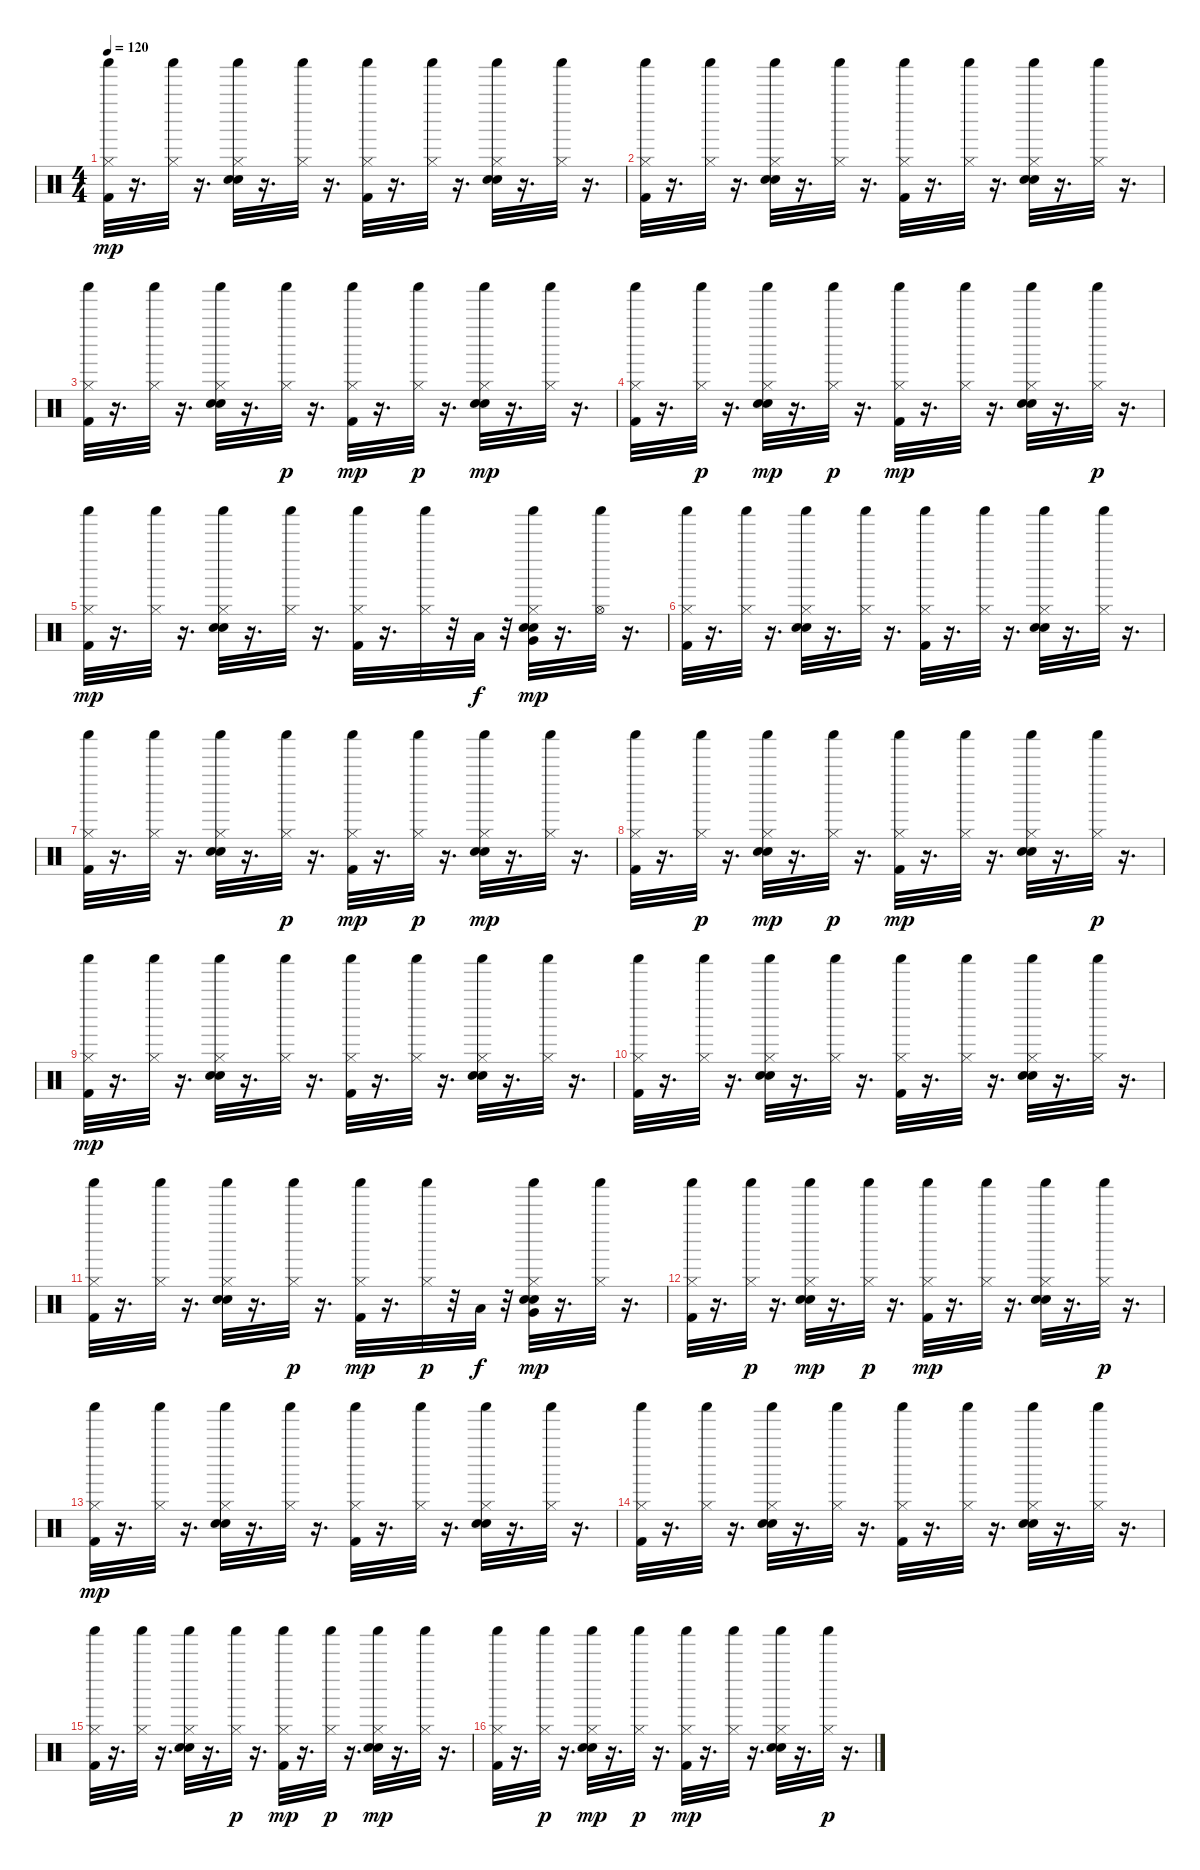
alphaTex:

\track "" {instrument percussion}
\staff {score}
\articulation defaults
\ts (4 4)
\tempo 120
\clef neutral
\ks c
("Kick (hit) 2" "Hi-Hat (closed)" "Shaker (hit)").32{dy mp} r.16{d} ("Hi-Hat (closed)" "Shaker (hit)").32 r.16{d} ("Hand Clap (hit)" "Electric Snare (hit)" "Hi-Hat (closed)" "Shaker (hit)").32 r.16{d} ("Hi-Hat (closed)" "Shaker (hit)").32 r.16{d} ("Kick (hit) 2" "Hi-Hat (closed)" "Shaker (hit)").32 r.16{d} ("Hi-Hat (closed)" "Shaker (hit)").32 r.16{d} ("Hand Clap (hit)" "Electric Snare (hit)" "Hi-Hat (closed)" "Shaker (hit)").32 r.16{d} ("Hi-Hat (closed)" "Shaker (hit)").32 r.16{d} |
("Kick (hit) 2" "Hi-Hat (closed)" "Shaker (hit)").32 r.16{d} ("Hi-Hat (closed)" "Shaker (hit)").32 r.16{d} ("Hand Clap (hit)" "Electric Snare (hit)" "Hi-Hat (closed)" "Shaker (hit)").32 r.16{d} ("Hi-Hat (closed)" "Shaker (hit)").32 r.16{d} ("Kick (hit) 2" "Hi-Hat (closed)" "Shaker (hit)").32 r.16{d} ("Hi-Hat (closed)" "Shaker (hit)").32 r.16{d} ("Hand Clap (hit)" "Electric Snare (hit)" "Hi-Hat (closed)" "Shaker (hit)").32 r.16{d} ("Hi-Hat (closed)" "Shaker (hit)").32 r.16{d} |
("Kick (hit) 2" "Hi-Hat (closed)" "Shaker (hit)").32 r.16{d} ("Hi-Hat (closed)" "Shaker (hit)").32 r.16{d} ("Hand Clap (hit)" "Electric Snare (hit)" "Hi-Hat (closed)" "Shaker (hit)").32 r.16{d} ("Hi-Hat (closed)" "Shaker (hit)").32{dy p} r.16{d} ("Kick (hit) 2" "Hi-Hat (closed)" "Shaker (hit)").32{dy mp} r.16{d} ("Hi-Hat (closed)" "Shaker (hit)").32{dy p} r.16{d} ("Hand Clap (hit)" "Electric Snare (hit)" "Hi-Hat (closed)" "Shaker (hit)").32{dy mp} r.16{d} ("Hi-Hat (closed)" "Shaker (hit)").32 r.16{d} |
("Kick (hit) 2" "Hi-Hat (closed)" "Shaker (hit)").32 r.16{d} ("Hi-Hat (closed)" "Shaker (hit)").32{dy p} r.16{d} ("Hand Clap (hit)" "Electric Snare (hit)" "Hi-Hat (closed)" "Shaker (hit)").32{dy mp} r.16{d} ("Hi-Hat (closed)" "Shaker (hit)").32{dy p} r.16{d} ("Kick (hit) 2" "Hi-Hat (closed)" "Shaker (hit)").32{dy mp} r.16{d} ("Hi-Hat (closed)" "Shaker (hit)").32 r.16{d} ("Hand Clap (hit)" "Electric Snare (hit)" "Hi-Hat (closed)" "Shaker (hit)").32 r.16{d} ("Hi-Hat (closed)" "Shaker (hit)").32{dy p} r.16{d} |
("Kick (hit) 2" "Hi-Hat (closed)" "Shaker (hit)").32{dy mp} r.16{d} ("Hi-Hat (closed)" "Shaker (hit)").32 r.16{d} ("Hand Clap (hit)" "Electric Snare (hit)" "Hi-Hat (closed)" "Shaker (hit)").32 r.16{d} ("Hi-Hat (closed)" "Shaker (hit)").32 r.16{d} ("Kick (hit) 2" "Hi-Hat (closed)" "Shaker (hit)").32 r.16{d} ("Hi-Hat (closed)" "Shaker (hit)").32 r.32 "Low Tom (hit)".32{dy f} r.32 ("Hand Clap (hit)" "Electric Snare (hit)" "Hi-Hat (closed)" "Very Low Tom (hit)" "Shaker (hit)").32{dy mp} r.16{d} ("Hi-Hat (open)" "Shaker (hit)").32 r.16{d} |
("Kick (hit) 2" "Hi-Hat (closed)" "Shaker (hit)").32 r.16{d} ("Hi-Hat (closed)" "Shaker (hit)").32 r.16{d} ("Hand Clap (hit)" "Electric Snare (hit)" "Hi-Hat (closed)" "Shaker (hit)").32 r.16{d} ("Hi-Hat (closed)" "Shaker (hit)").32 r.16{d} ("Kick (hit) 2" "Hi-Hat (closed)" "Shaker (hit)").32 r.16{d} ("Hi-Hat (closed)" "Shaker (hit)").32 r.16{d} ("Hand Clap (hit)" "Electric Snare (hit)" "Hi-Hat (closed)" "Shaker (hit)").32 r.16{d} ("Hi-Hat (closed)" "Shaker (hit)").32 r.16{d} |
("Kick (hit) 2" "Hi-Hat (closed)" "Shaker (hit)").32 r.16{d} ("Hi-Hat (closed)" "Shaker (hit)").32 r.16{d} ("Hand Clap (hit)" "Electric Snare (hit)" "Hi-Hat (closed)" "Shaker (hit)").32 r.16{d} ("Hi-Hat (closed)" "Shaker (hit)").32{dy p} r.16{d} ("Kick (hit) 2" "Hi-Hat (closed)" "Shaker (hit)").32{dy mp} r.16{d} ("Hi-Hat (closed)" "Shaker (hit)").32{dy p} r.16{d} ("Hand Clap (hit)" "Electric Snare (hit)" "Hi-Hat (closed)" "Shaker (hit)").32{dy mp} r.16{d} ("Hi-Hat (closed)" "Shaker (hit)").32 r.16{d} |
("Kick (hit) 2" "Hi-Hat (closed)" "Shaker (hit)").32 r.16{d} ("Hi-Hat (closed)" "Shaker (hit)").32{dy p} r.16{d} ("Hand Clap (hit)" "Electric Snare (hit)" "Hi-Hat (closed)" "Shaker (hit)").32{dy mp} r.16{d} ("Hi-Hat (closed)" "Shaker (hit)").32{dy p} r.16{d} ("Kick (hit) 2" "Hi-Hat (closed)" "Shaker (hit)").32{dy mp} r.16{d} ("Hi-Hat (closed)" "Shaker (hit)").32 r.16{d} ("Hand Clap (hit)" "Electric Snare (hit)" "Hi-Hat (closed)" "Shaker (hit)").32 r.16{d} ("Hi-Hat (closed)" "Shaker (hit)").32{dy p} r.16{d} |
("Kick (hit) 2" "Hi-Hat (closed)" "Shaker (hit)").32{dy mp} r.16{d} ("Hi-Hat (closed)" "Shaker (hit)").32 r.16{d} ("Hand Clap (hit)" "Electric Snare (hit)" "Hi-Hat (closed)" "Shaker (hit)").32 r.16{d} ("Hi-Hat (closed)" "Shaker (hit)").32 r.16{d} ("Kick (hit) 2" "Hi-Hat (closed)" "Shaker (hit)").32 r.16{d} ("Hi-Hat (closed)" "Shaker (hit)").32 r.16{d} ("Hand Clap (hit)" "Electric Snare (hit)" "Hi-Hat (closed)" "Shaker (hit)").32 r.16{d} ("Hi-Hat (closed)" "Shaker (hit)").32 r.16{d} |
("Kick (hit) 2" "Hi-Hat (closed)" "Shaker (hit)").32 r.16{d} ("Hi-Hat (closed)" "Shaker (hit)").32 r.16{d} ("Hand Clap (hit)" "Electric Snare (hit)" "Hi-Hat (closed)" "Shaker (hit)").32 r.16{d} ("Hi-Hat (closed)" "Shaker (hit)").32 r.16{d} ("Kick (hit) 2" "Hi-Hat (closed)" "Shaker (hit)").32 r.16{d} ("Hi-Hat (closed)" "Shaker (hit)").32 r.16{d} ("Hand Clap (hit)" "Electric Snare (hit)" "Hi-Hat (closed)" "Shaker (hit)").32 r.16{d} ("Hi-Hat (closed)" "Shaker (hit)").32 r.16{d} |
("Kick (hit) 2" "Hi-Hat (closed)" "Shaker (hit)").32 r.16{d} ("Hi-Hat (closed)" "Shaker (hit)").32 r.16{d} ("Hand Clap (hit)" "Electric Snare (hit)" "Hi-Hat (closed)" "Shaker (hit)").32 r.16{d} ("Hi-Hat (closed)" "Shaker (hit)").32{dy p} r.16{d} ("Kick (hit) 2" "Hi-Hat (closed)" "Shaker (hit)").32{dy mp} r.16{d} ("Hi-Hat (closed)" "Shaker (hit)").32{dy p} r.32 "Low Tom (hit)".32{dy f} r.32 ("Hand Clap (hit)" "Electric Snare (hit)" "Hi-Hat (closed)" "Very Low Tom (hit)" "Shaker (hit)").32{dy mp} r.16{d} ("Hi-Hat (closed)" "Shaker (hit)").32 r.16{d} |
("Kick (hit) 2" "Hi-Hat (closed)" "Shaker (hit)").32 r.16{d} ("Hi-Hat (closed)" "Shaker (hit)").32{dy p} r.16{d} ("Hand Clap (hit)" "Electric Snare (hit)" "Hi-Hat (closed)" "Shaker (hit)").32{dy mp} r.16{d} ("Hi-Hat (closed)" "Shaker (hit)").32{dy p} r.16{d} ("Kick (hit) 2" "Hi-Hat (closed)" "Shaker (hit)").32{dy mp} r.16{d} ("Hi-Hat (closed)" "Shaker (hit)").32 r.16{d} ("Hand Clap (hit)" "Electric Snare (hit)" "Hi-Hat (closed)" "Shaker (hit)").32 r.16{d} ("Hi-Hat (closed)" "Shaker (hit)").32{dy p} r.16{d} |
("Kick (hit) 2" "Hi-Hat (closed)" "Shaker (hit)").32{dy mp} r.16{d} ("Hi-Hat (closed)" "Shaker (hit)").32 r.16{d} ("Hand Clap (hit)" "Electric Snare (hit)" "Hi-Hat (closed)" "Shaker (hit)").32 r.16{d} ("Hi-Hat (closed)" "Shaker (hit)").32 r.16{d} ("Kick (hit) 2" "Hi-Hat (closed)" "Shaker (hit)").32 r.16{d} ("Hi-Hat (closed)" "Shaker (hit)").32 r.16{d} ("Hand Clap (hit)" "Electric Snare (hit)" "Hi-Hat (closed)" "Shaker (hit)").32 r.16{d} ("Hi-Hat (closed)" "Shaker (hit)").32 r.16{d} |
("Kick (hit) 2" "Hi-Hat (closed)" "Shaker (hit)").32 r.16{d} ("Hi-Hat (closed)" "Shaker (hit)").32 r.16{d} ("Hand Clap (hit)" "Electric Snare (hit)" "Hi-Hat (closed)" "Shaker (hit)").32 r.16{d} ("Hi-Hat (closed)" "Shaker (hit)").32 r.16{d} ("Kick (hit) 2" "Hi-Hat (closed)" "Shaker (hit)").32 r.16{d} ("Hi-Hat (closed)" "Shaker (hit)").32 r.16{d} ("Hand Clap (hit)" "Electric Snare (hit)" "Hi-Hat (closed)" "Shaker (hit)").32 r.16{d} ("Hi-Hat (closed)" "Shaker (hit)").32 r.16{d} |
("Kick (hit) 2" "Hi-Hat (closed)" "Shaker (hit)").32 r.16{d} ("Hi-Hat (closed)" "Shaker (hit)").32 r.16{d} ("Hand Clap (hit)" "Electric Snare (hit)" "Hi-Hat (closed)" "Shaker (hit)").32 r.16{d} ("Hi-Hat (closed)" "Shaker (hit)").32{dy p} r.16{d} ("Kick (hit) 2" "Hi-Hat (closed)" "Shaker (hit)").32{dy mp} r.16{d} ("Hi-Hat (closed)" "Shaker (hit)").32{dy p} r.16{d} ("Hand Clap (hit)" "Electric Snare (hit)" "Hi-Hat (closed)" "Shaker (hit)").32{dy mp} r.16{d} ("Hi-Hat (closed)" "Shaker (hit)").32 r.16{d} |
("Kick (hit) 2" "Hi-Hat (closed)" "Shaker (hit)").32 r.16{d} ("Hi-Hat (closed)" "Shaker (hit)").32{dy p} r.16{d} ("Hand Clap (hit)" "Electric Snare (hit)" "Hi-Hat (closed)" "Shaker (hit)").32{dy mp} r.16{d} ("Hi-Hat (closed)" "Shaker (hit)").32{dy p} r.16{d} ("Kick (hit) 2" "Hi-Hat (closed)" "Shaker (hit)").32{dy mp} r.16{d} ("Hi-Hat (closed)" "Shaker (hit)").32 r.16{d} ("Hand Clap (hit)" "Electric Snare (hit)" "Hi-Hat (closed)" "Shaker (hit)").32 r.16{d} ("Hi-Hat (closed)" "Shaker (hit)").32{dy p} r.16{d}
